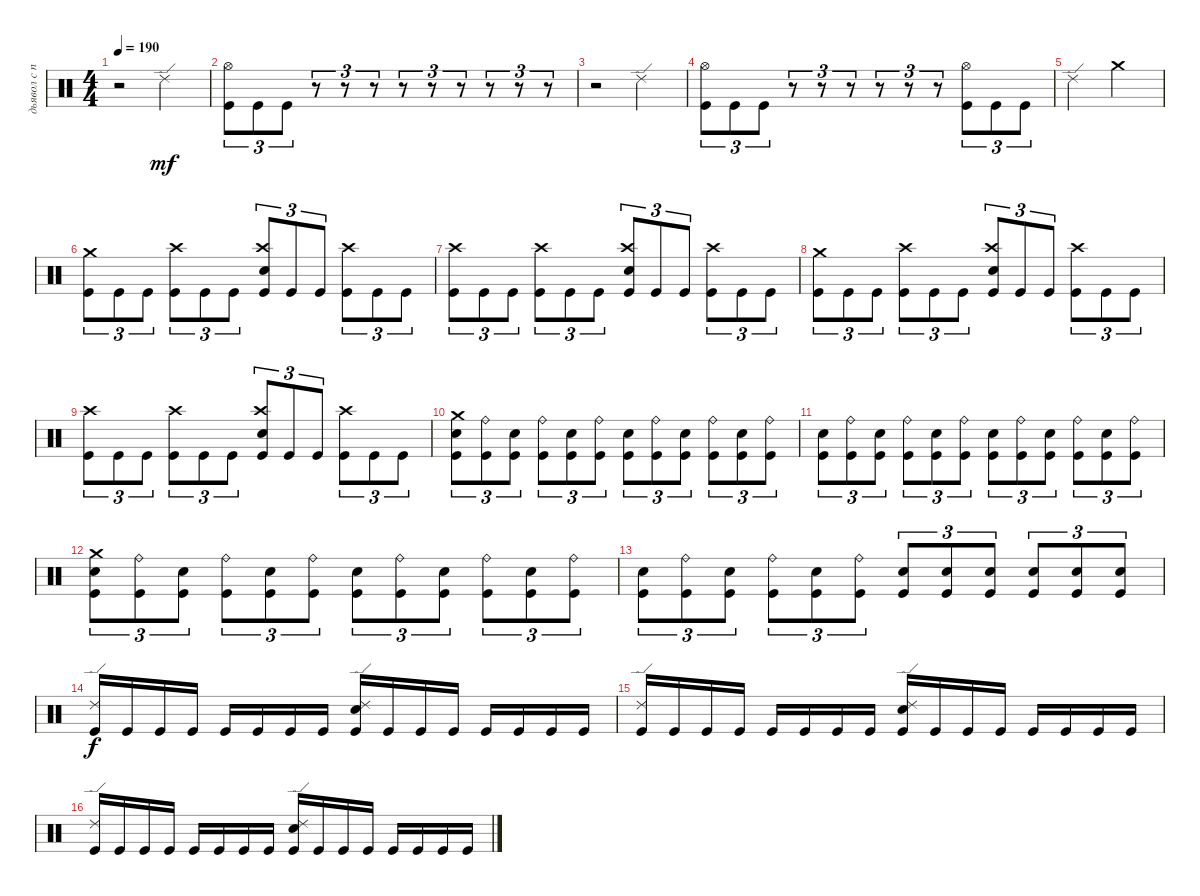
\track ("дьявол с палками" "дьявол с п") {instrument percussion}
\staff {score}
\articulation defaults
\ts (4 4)
\tempo 190
\clef neutral
\ks c
r.2{dy mf} "Ride (edge) 2".2 |
("Kick (hit)" "Hi-Hat (open)").8{tu (3 2)} "Kick (hit)".8{tu (3 2)} "Kick (hit)".8{tu (3 2)} r.8{tu (3 2)} r.8{tu (3 2)} r.8{tu (3 2)} r.8{tu (3 2)} r.8{tu (3 2)} r.8{tu (3 2)} r.8{tu (3 2)} r.8{tu (3 2)} r.8{tu (3 2)} |
r.2 "Ride (edge) 2".2 |
("Kick (hit)" "Hi-Hat (open)").8{tu (3 2)} "Kick (hit)".8{tu (3 2)} "Kick (hit)".8{tu (3 2)} r.8{tu (3 2)} r.8{tu (3 2)} r.8{tu (3 2)} r.8{tu (3 2)} r.8{tu (3 2)} r.8{tu (3 2)} ("Kick (hit)" "Hi-Hat (open)").8{tu (3 2)} "Kick (hit)".8{tu (3 2)} "Kick (hit)".8{tu (3 2)} |
"Ride (edge) 2".2 "Crash medium (hit)".2 |
("Kick (hit)" "Crash medium (hit)").8{tu (3 2)} "Kick (hit)".8{tu (3 2)} "Kick (hit)".8{tu (3 2)} ("Kick (hit)" "Crash high (hit)").8{tu (3 2)} "Kick (hit)".8{tu (3 2)} "Kick (hit)".8{tu (3 2)} ("Kick (hit)" "Crash high (hit)" "Snare (hit) 2").8{tu (3 2)} "Kick (hit)".8{tu (3 2)} "Kick (hit)".8{tu (3 2)} ("Kick (hit)" "Crash high (hit)").8{tu (3 2)} "Kick (hit)".8{tu (3 2)} "Kick (hit)".8{tu (3 2)} |
("Kick (hit)" "Crash high (hit)").8{tu (3 2)} "Kick (hit)".8{tu (3 2)} "Kick (hit)".8{tu (3 2)} ("Kick (hit)" "Crash high (hit)").8{tu (3 2)} "Kick (hit)".8{tu (3 2)} "Kick (hit)".8{tu (3 2)} ("Kick (hit)" "Crash high (hit)" "Snare (hit) 2").8{tu (3 2)} "Kick (hit)".8{tu (3 2)} "Kick (hit)".8{tu (3 2)} ("Kick (hit)" "Crash high (hit)").8{tu (3 2)} "Kick (hit)".8{tu (3 2)} "Kick (hit)".8{tu (3 2)} |
("Kick (hit)" "Crash medium (hit)").8{tu (3 2)} "Kick (hit)".8{tu (3 2)} "Kick (hit)".8{tu (3 2)} ("Kick (hit)" "Crash high (hit)").8{tu (3 2)} "Kick (hit)".8{tu (3 2)} "Kick (hit)".8{tu (3 2)} ("Kick (hit)" "Crash high (hit)" "Snare (hit) 2").8{tu (3 2)} "Kick (hit)".8{tu (3 2)} "Kick (hit)".8{tu (3 2)} ("Kick (hit)" "Crash high (hit)").8{tu (3 2)} "Kick (hit)".8{tu (3 2)} "Kick (hit)".8{tu (3 2)} |
("Kick (hit)" "Crash high (hit)").8{tu (3 2)} "Kick (hit)".8{tu (3 2)} "Kick (hit)".8{tu (3 2)} ("Kick (hit)" "Crash high (hit)").8{tu (3 2)} "Kick (hit)".8{tu (3 2)} "Kick (hit)".8{tu (3 2)} ("Kick (hit)" "Crash high (hit)" "Snare (hit) 2").8{tu (3 2)} "Kick (hit)".8{tu (3 2)} "Kick (hit)".8{tu (3 2)} ("Kick (hit)" "Crash high (hit)").8{tu (3 2)} "Kick (hit)".8{tu (3 2)} "Kick (hit)".8{tu (3 2)} |
("Kick (hit)" "Snare (hit) 2" "Crash medium (hit)").8{tu (3 2)} ("Kick (hit)" "Ride (bell)").8{tu (3 2)} ("Kick (hit)" "Snare (hit) 2").8{tu (3 2)} ("Kick (hit)" "Ride (bell)").8{tu (3 2)} ("Kick (hit)" "Snare (hit) 2").8{tu (3 2)} ("Kick (hit)" "Ride (bell)").8{tu (3 2)} ("Kick (hit)" "Snare (hit) 2").8{tu (3 2)} ("Kick (hit)" "Ride (bell)").8{tu (3 2)} ("Kick (hit)" "Snare (hit) 2").8{tu (3 2)} ("Kick (hit)" "Ride (bell)").8{tu (3 2)} ("Kick (hit)" "Snare (hit) 2").8{tu (3 2)} ("Kick (hit)" "Ride (bell)").8{tu (3 2)} |
("Kick (hit)" "Snare (hit) 2").8{tu (3 2)} ("Kick (hit)" "Ride (bell)").8{tu (3 2)} ("Kick (hit)" "Snare (hit) 2").8{tu (3 2)} ("Kick (hit)" "Ride (bell)").8{tu (3 2)} ("Kick (hit)" "Snare (hit) 2").8{tu (3 2)} ("Kick (hit)" "Ride (bell)").8{tu (3 2)} ("Kick (hit)" "Snare (hit) 2").8{tu (3 2)} ("Kick (hit)" "Ride (bell)").8{tu (3 2)} ("Kick (hit)" "Snare (hit) 2").8{tu (3 2)} ("Kick (hit)" "Ride (bell)").8{tu (3 2)} ("Kick (hit)" "Snare (hit) 2").8{tu (3 2)} ("Kick (hit)" "Ride (bell)").8{tu (3 2)} |
("Kick (hit)" "Snare (hit) 2" "Crash medium (hit)").8{tu (3 2)} ("Kick (hit)" "Ride (bell)").8{tu (3 2)} ("Kick (hit)" "Snare (hit) 2").8{tu (3 2)} ("Kick (hit)" "Ride (bell)").8{tu (3 2)} ("Kick (hit)" "Snare (hit) 2").8{tu (3 2)} ("Kick (hit)" "Ride (bell)").8{tu (3 2)} ("Kick (hit)" "Snare (hit) 2").8{tu (3 2)} ("Kick (hit)" "Ride (bell)").8{tu (3 2)} ("Kick (hit)" "Snare (hit) 2").8{tu (3 2)} ("Kick (hit)" "Ride (bell)").8{tu (3 2)} ("Kick (hit)" "Snare (hit) 2").8{tu (3 2)} ("Kick (hit)" "Ride (bell)").8{tu (3 2)} |
("Kick (hit)" "Snare (hit) 2").8{tu (3 2)} ("Kick (hit)" "Ride (bell)").8{tu (3 2)} ("Kick (hit)" "Snare (hit) 2").8{tu (3 2)} ("Kick (hit)" "Ride (bell)").8{tu (3 2)} ("Kick (hit)" "Snare (hit) 2").8{tu (3 2)} ("Kick (hit)" "Ride (bell)").8{tu (3 2)} ("Kick (hit)" "Snare (hit) 2").8{tu (3 2)} ("Kick (hit)" "Snare (hit) 2").8{tu (3 2)} ("Kick (hit)" "Snare (hit) 2").8{tu (3 2)} ("Kick (hit)" "Snare (hit) 2").8{tu (3 2)} ("Kick (hit)" "Snare (hit) 2").8{tu (3 2)} ("Kick (hit)" "Snare (hit) 2").8{tu (3 2)} |
("Kick (hit)" "Ride (edge) 2").16{dy f} "Kick (hit)".16 "Kick (hit)".16 "Kick (hit)".16 "Kick (hit)".16 "Kick (hit)".16 "Kick (hit)".16 "Kick (hit)".16 ("Kick (hit)" "Ride (edge) 2" "Snare (hit) 2").16 "Kick (hit)".16 "Kick (hit)".16 "Kick (hit)".16 "Kick (hit)".16 "Kick (hit)".16 "Kick (hit)".16 "Kick (hit)".16 |
("Kick (hit)" "Ride (edge) 2").16 "Kick (hit)".16 "Kick (hit)".16 "Kick (hit)".16 "Kick (hit)".16 "Kick (hit)".16 "Kick (hit)".16 "Kick (hit)".16 ("Kick (hit)" "Ride (edge) 2" "Snare (hit) 2").16 "Kick (hit)".16 "Kick (hit)".16 "Kick (hit)".16 "Kick (hit)".16 "Kick (hit)".16 "Kick (hit)".16 "Kick (hit)".16 |
("Kick (hit)" "Ride (edge) 2").16 "Kick (hit)".16 "Kick (hit)".16 "Kick (hit)".16 "Kick (hit)".16 "Kick (hit)".16 "Kick (hit)".16 "Kick (hit)".16 ("Kick (hit)" "Ride (edge) 2" "Snare (hit) 2").16 "Kick (hit)".16 "Kick (hit)".16 "Kick (hit)".16 "Kick (hit)".16 "Kick (hit)".16 "Kick (hit)".16 "Kick (hit)".16
